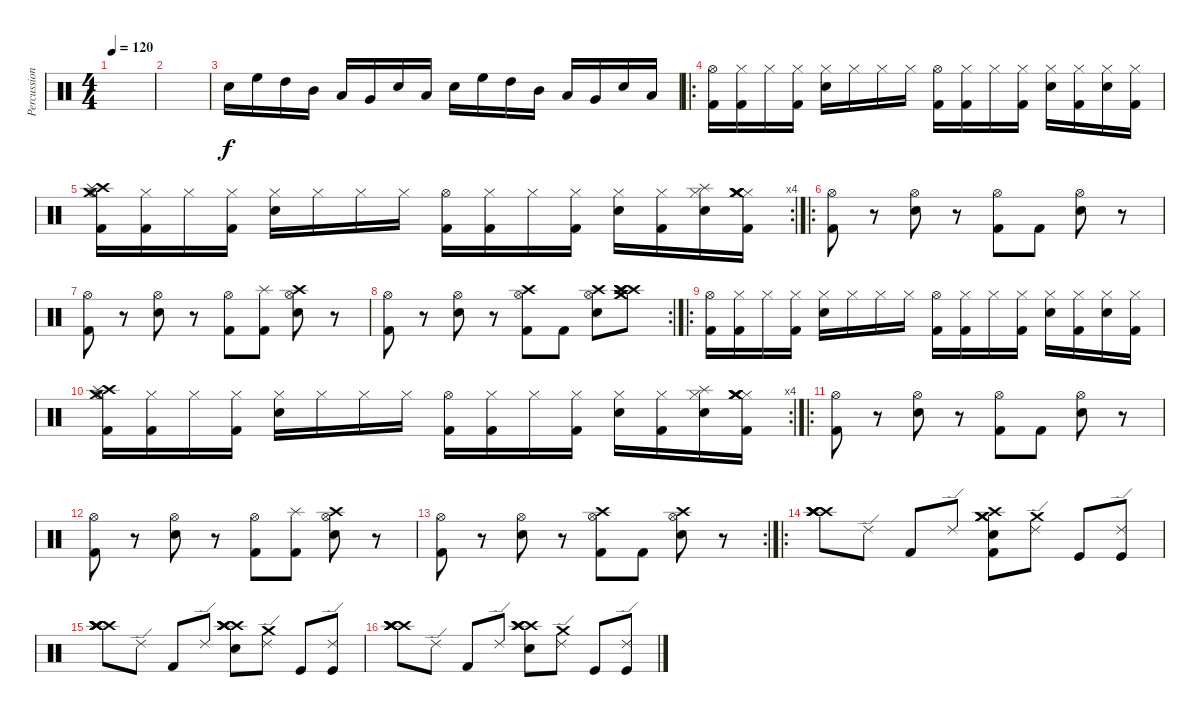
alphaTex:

\track ("Percussion" "Percussion") {instrument percussion}
\staff {score}
\articulation defaults
\ts (4 4)
\tempo 120
\clef neutral
\ks c
|
|
"Electric Snare (hit)".16 "High Floor Tom (hit)".16 "High Tom (hit)".16 "Mid Tom (hit)".16 "Low Tom (hit)".16 "Very Low Tom (hit)".16 "Electric Snare (hit)".16 "Low Floor Tom (hit)".16 "Electric Snare (hit)".16 "High Floor Tom (hit)".16 "High Tom (hit)".16 "Mid Tom (hit)".16 "Low Tom (hit)".16 "Very Low Tom (hit)".16 "Electric Snare (hit)".16 "Low Floor Tom (hit)".16 |
\ro
("Hi-Hat (open)" "Kick (hit) 2").16 ("Hi-Hat (closed)" "Kick (hit) 2").16 "Hi-Hat (closed)".16 ("Hi-Hat (closed)" "Kick (hit) 2").16 ("Hi-Hat (closed)" "Electric Snare (hit)").16 "Hi-Hat (closed)".16 "Hi-Hat (closed)".16 "Hi-Hat (closed)".16 ("Hi-Hat (open)" "Kick (hit) 2").16 ("Hi-Hat (closed)" "Kick (hit) 2").16 "Hi-Hat (closed)".16 ("Hi-Hat (closed)" "Kick (hit) 2").16 ("Hi-Hat (closed)" "Snare (hit) 2").16 ("Hi-Hat (closed)" "Kick (hit) 2").16 ("Hi-Hat (closed)" "Snare (hit) 2").16 ("Hi-Hat (closed)" "Kick (hit) 2").16 |
\rc 4
("Hi-Hat (open)" "Crash high (hit)" "Kick (hit) 2" "Splash (hit)" "Crash medium (hit)").16 ("Hi-Hat (closed)" "Kick (hit) 2").16 "Hi-Hat (closed)".16 ("Hi-Hat (closed)" "Kick (hit) 2").16 ("Hi-Hat (closed)" "Electric Snare (hit)").16 "Hi-Hat (closed)".16 "Hi-Hat (closed)".16 "Hi-Hat (closed)".16 ("Hi-Hat (open)" "Kick (hit) 2").16 ("Hi-Hat (closed)" "Kick (hit) 2").16 "Hi-Hat (closed)".16 ("Hi-Hat (closed)" "Kick (hit) 2").16 ("Hi-Hat (closed)" "Snare (hit) 2").16 ("Hi-Hat (closed)" "Kick (hit) 2").16 ("Hi-Hat (closed)" "Snare (hit) 2" "Splash (hit)").16 ("Hi-Hat (closed)" "Crash medium (hit)" "Kick (hit) 2" "Crash medium (hit)" "Crash medium (hit)" "Crash medium (hit)").16 |
\ro
("Hi-Hat (open)" "Kick (hit) 2").8 r.8 ("Hi-Hat (open)" "Snare (hit) 2").8 r.8 ("Hi-Hat (open)" "Kick (hit) 2").8 "Kick (hit) 2".8 ("Hi-Hat (open)" "Snare (hit) 2").8 r.8 |
("Hi-Hat (open)" "Kick (hit) 2").8 r.8 ("Hi-Hat (open)" "Snare (hit) 2").8 r.8 ("Hi-Hat (open)" "Kick (hit) 2").8 ("Splash (hit)" "Kick (hit) 2").8 ("Hi-Hat (open)" "Crash high (hit)" "Snare (hit) 2").8 r.8 |
\rc 2
("Hi-Hat (open)" "Kick (hit) 2").8 r.8 ("Hi-Hat (open)" "Snare (hit) 2").8 r.8 ("Hi-Hat (open)" "Crash high (hit)" "Kick (hit) 2").8 "Kick (hit) 2".8 ("Hi-Hat (open)" "Crash high (hit)" "Snare (hit) 2").8 ("Crash high (hit)" "Crash medium (hit)" "Crash high (hit)" "Crash medium (hit)" "Splash (hit)" "Crash high (hit)").8 |
\ro
("Hi-Hat (open)" "Kick (hit) 2").16 ("Hi-Hat (closed)" "Kick (hit) 2").16 "Hi-Hat (closed)".16 ("Hi-Hat (closed)" "Kick (hit) 2").16 ("Hi-Hat (closed)" "Electric Snare (hit)").16 "Hi-Hat (closed)".16 "Hi-Hat (closed)".16 "Hi-Hat (closed)".16 ("Hi-Hat (open)" "Kick (hit) 2").16 ("Hi-Hat (closed)" "Kick (hit) 2").16 "Hi-Hat (closed)".16 ("Hi-Hat (closed)" "Kick (hit) 2").16 ("Hi-Hat (closed)" "Snare (hit) 2").16 ("Hi-Hat (closed)" "Kick (hit) 2").16 ("Hi-Hat (closed)" "Snare (hit) 2").16 ("Hi-Hat (closed)" "Kick (hit) 2").16 |
\rc 4
("Hi-Hat (open)" "Crash high (hit)" "Kick (hit) 2" "Splash (hit)" "Crash medium (hit)").16 ("Hi-Hat (closed)" "Kick (hit) 2").16 "Hi-Hat (closed)".16 ("Hi-Hat (closed)" "Kick (hit) 2").16 ("Hi-Hat (closed)" "Electric Snare (hit)").16 "Hi-Hat (closed)".16 "Hi-Hat (closed)".16 "Hi-Hat (closed)".16 ("Hi-Hat (open)" "Kick (hit) 2").16 ("Hi-Hat (closed)" "Kick (hit) 2").16 "Hi-Hat (closed)".16 ("Hi-Hat (closed)" "Kick (hit) 2").16 ("Hi-Hat (closed)" "Snare (hit) 2").16 ("Hi-Hat (closed)" "Kick (hit) 2").16 ("Hi-Hat (closed)" "Snare (hit) 2" "Splash (hit)").16 ("Hi-Hat (closed)" "Crash medium (hit)" "Kick (hit) 2" "Crash medium (hit)" "Crash medium (hit)" "Crash medium (hit)").16 |
\ro
("Hi-Hat (open)" "Kick (hit) 2").8 r.8 ("Hi-Hat (open)" "Snare (hit) 2").8 r.8 ("Hi-Hat (open)" "Kick (hit) 2").8 "Kick (hit) 2".8 ("Hi-Hat (open)" "Snare (hit) 2").8 r.8 |
("Hi-Hat (open)" "Kick (hit) 2").8 r.8 ("Hi-Hat (open)" "Snare (hit) 2").8 r.8 ("Hi-Hat (open)" "Kick (hit) 2").8 ("Splash (hit)" "Kick (hit) 2").8 ("Hi-Hat (open)" "Crash high (hit)" "Snare (hit) 2").8 r.8 |
\rc 2
("Hi-Hat (open)" "Kick (hit) 2").8 r.8 ("Hi-Hat (open)" "Snare (hit) 2").8 r.8 ("Hi-Hat (open)" "Crash high (hit)" "Kick (hit) 2").8 "Kick (hit) 2".8 ("Hi-Hat (open)" "Crash high (hit)" "Snare (hit) 2").8 r.8 |
\ro
("Crash high (hit)" "Crash high (hit)" "Crash high (hit)" "Crash high (hit)" "Crash high (hit)" "Crash high (hit)").8 "Ride (edge) 2".8 "Kick (hit) 2".8 "Ride (edge) 2".8 ("Kick (hit) 2" "Crash high (hit)" "Snare (hit) 2" "Crash medium (hit)" "Crash medium (hit)" "Crash medium (hit)").8 ("Crash medium (hit)" "Ride (edge) 2").8 "Kick (hit)".8 ("Kick (hit)" "Ride (edge) 2").8 |
("Crash high (hit)" "Crash high (hit)" "Crash high (hit)" "Crash high (hit)" "Crash high (hit)" "Crash high (hit)").8 "Ride (edge) 2".8 "Kick (hit) 2".8 "Ride (edge) 2".8 ("Crash high (hit)" "Crash high (hit)" "Snare (hit) 2" "Crash high (hit)" "Crash high (hit)" "Crash high (hit)").8 ("Crash medium (hit)" "Ride (edge) 2").8 "Kick (hit)".8 ("Kick (hit)" "Ride (edge) 2").8 |
("Crash high (hit)" "Crash high (hit)" "Crash high (hit)" "Crash high (hit)" "Crash high (hit)" "Crash high (hit)").8 "Ride (edge) 2".8 "Kick (hit) 2".8 "Ride (edge) 2".8 ("Crash high (hit)" "Crash high (hit)" "Snare (hit) 2" "Crash high (hit)" "Crash high (hit)" "Crash high (hit)").8 ("Crash medium (hit)" "Ride (edge) 2").8 "Kick (hit)".8 ("Kick (hit)" "Ride (edge) 2").8
